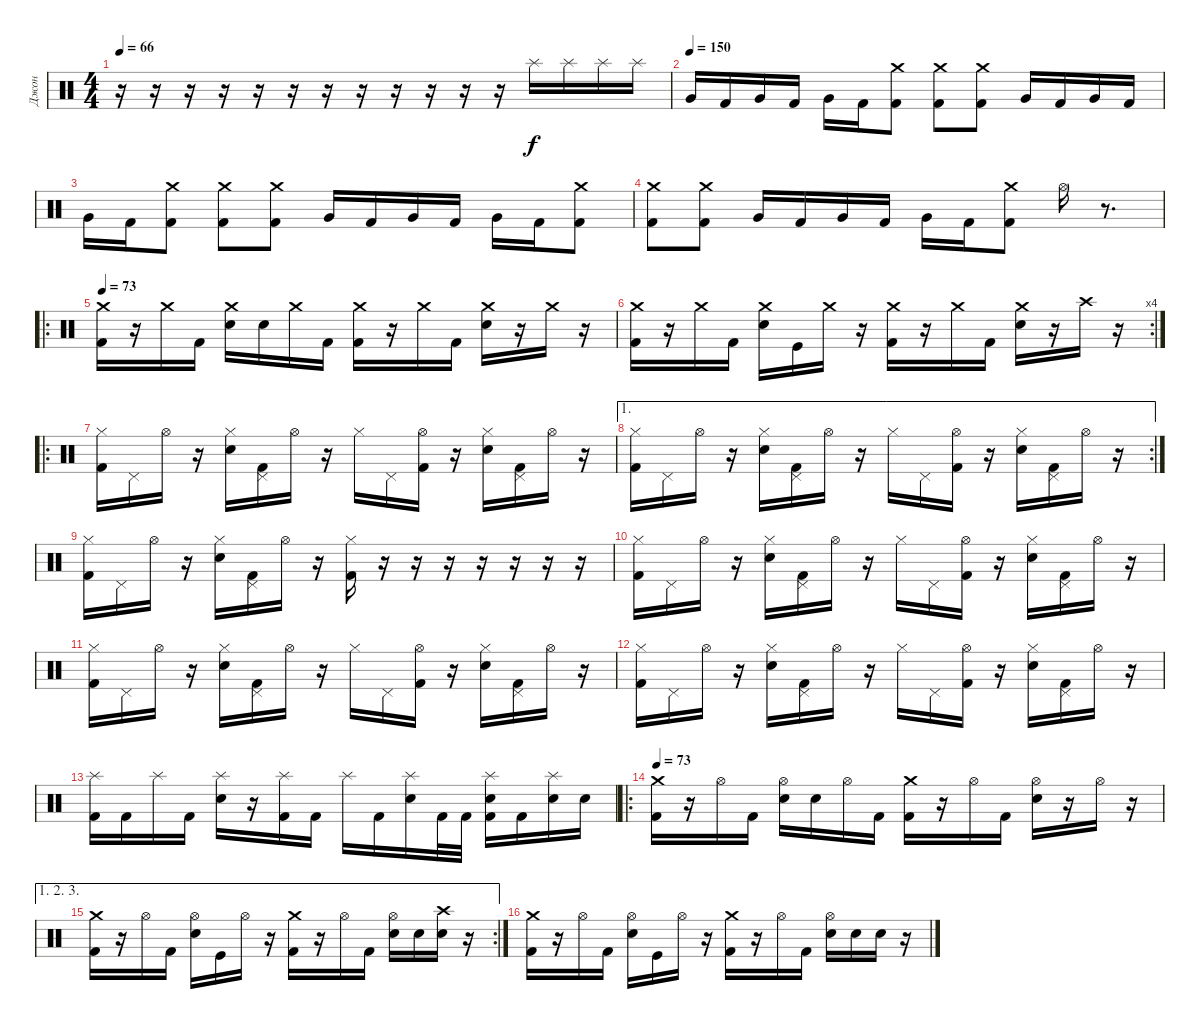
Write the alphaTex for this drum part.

\track ("Джон" "Джон") {instrument percussion}
\staff {score}
\articulation defaults
\ts (4 4)
\tempo 66
\clef neutral
\ks c
r.16{dy f} r.16 r.16 r.16 r.16 r.16 r.16 r.16 r.16 r.16 r.16 r.16 "Splash (hit)".16 "Splash (hit)".16 "Splash (hit)".16 "Splash (hit)".16 |
\tempo (150)
"Very Low Tom (hit)".16 "Kick (hit) 2".16 "Very Low Tom (hit)".16 "Kick (hit) 2".16 "Very Low Tom (hit)".16 "Kick (hit) 2".16 ("Crash medium (hit)" "Kick (hit) 2").8 ("Crash medium (hit)" "Kick (hit) 2").8 ("Crash medium (hit)" "Kick (hit) 2").8 "Very Low Tom (hit)".16 "Kick (hit) 2".16 "Very Low Tom (hit)".16 "Kick (hit) 2".16 |
"Very Low Tom (hit)".16 "Kick (hit) 2".16 ("Crash medium (hit)" "Kick (hit) 2").8 ("Crash medium (hit)" "Kick (hit) 2").8 ("Crash medium (hit)" "Kick (hit) 2").8 "Very Low Tom (hit)".16 "Kick (hit) 2".16 "Very Low Tom (hit)".16 "Kick (hit) 2".16 "Very Low Tom (hit)".16 "Kick (hit) 2".16 ("Crash medium (hit)" "Kick (hit) 2").8 |
("Crash medium (hit)" "Kick (hit) 2").8 ("Crash medium (hit)" "Kick (hit) 2").8 "Very Low Tom (hit)".16 "Kick (hit) 2".16 "Very Low Tom (hit)".16 "Kick (hit) 2".16 "Very Low Tom (hit)".16 "Kick (hit) 2".16 ("Crash medium (hit)" "Kick (hit) 2").8 "Hi-Hat (open)".16 r.8{d} |
\ro
\tempo 73
("Crash medium (hit)" "Kick (hit) 2").16 r.16 "Crash medium (hit)".16 "Kick (hit) 2".16 ("Crash medium (hit)" "Electric Snare (hit)").16 "Electric Snare (hit)".16 "Crash medium (hit)".16 "Kick (hit) 2".16 ("Crash medium (hit)" "Kick (hit) 2").16 r.16 "Crash medium (hit)".16 "Kick (hit) 2".16 ("Crash medium (hit)" "Electric Snare (hit)").16 r.16 "Crash medium (hit)".16 r.16 |
\rc 4
("Crash medium (hit)" "Kick (hit) 2").16 r.16 "Crash medium (hit)".16 "Kick (hit) 2".16 ("Crash medium (hit)" "Electric Snare (hit)").16 "Kick (hit)".16 "Crash medium (hit)".16 r.16 ("Crash medium (hit)" "Kick (hit) 2").16 r.16 "Crash medium (hit)".16 "Kick (hit) 2".16 ("Crash medium (hit)" "Electric Snare (hit)").16 r.16 "Crash high (hit)".16 r.16 |
\ro
("Hi-Hat (closed)" "Kick (hit) 2").16 "Pedal Hi-Hat (hit)".16 "Hi-Hat (open)".16 r.16 ("Hi-Hat (closed)" "Electric Snare (hit)").16 ("Pedal Hi-Hat (hit)" "Kick (hit) 2").16 "Hi-Hat (open)".16 r.16 "Hi-Hat (closed)".16 "Pedal Hi-Hat (hit)".16 ("Hi-Hat (open)" "Kick (hit) 2").16 r.16 ("Hi-Hat (closed)" "Electric Snare (hit)").16 ("Pedal Hi-Hat (hit)" "Kick (hit) 2").16 "Hi-Hat (open)".16 r.16 |
\ae 1
\rc 2
("Hi-Hat (closed)" "Kick (hit) 2").16 "Pedal Hi-Hat (hit)".16 "Hi-Hat (open)".16 r.16 ("Hi-Hat (closed)" "Electric Snare (hit)").16 ("Pedal Hi-Hat (hit)" "Kick (hit) 2").16 "Hi-Hat (open)".16 r.16 "Hi-Hat (closed)".16 "Pedal Hi-Hat (hit)".16 ("Hi-Hat (open)" "Kick (hit) 2").16 r.16 ("Hi-Hat (closed)" "Electric Snare (hit)").16 ("Pedal Hi-Hat (hit)" "Kick (hit) 2").16 "Hi-Hat (open)".16 r.16 |
("Hi-Hat (closed)" "Kick (hit) 2").16 "Pedal Hi-Hat (hit)".16 "Hi-Hat (open)".16 r.16 ("Hi-Hat (closed)" "Electric Snare (hit)").16 ("Pedal Hi-Hat (hit)" "Kick (hit) 2").16 "Hi-Hat (open)".16 r.16 ("Hi-Hat (closed)" "Kick (hit) 2").16 r.16 r.16 r.16 r.16 r.16 r.16 r.16 |
("Hi-Hat (closed)" "Kick (hit) 2").16 "Pedal Hi-Hat (hit)".16 "Hi-Hat (open)".16 r.16 ("Hi-Hat (closed)" "Electric Snare (hit)").16 ("Pedal Hi-Hat (hit)" "Kick (hit) 2").16 "Hi-Hat (open)".16 r.16 "Hi-Hat (closed)".16 "Pedal Hi-Hat (hit)".16 ("Hi-Hat (open)" "Kick (hit) 2").16 r.16 ("Hi-Hat (closed)" "Electric Snare (hit)").16 ("Pedal Hi-Hat (hit)" "Kick (hit) 2").16 "Hi-Hat (open)".16 r.16 |
("Hi-Hat (closed)" "Kick (hit) 2").16 "Pedal Hi-Hat (hit)".16 "Hi-Hat (open)".16 r.16 ("Hi-Hat (closed)" "Electric Snare (hit)").16 ("Pedal Hi-Hat (hit)" "Kick (hit) 2").16 "Hi-Hat (open)".16 r.16 "Hi-Hat (closed)".16 "Pedal Hi-Hat (hit)".16 ("Hi-Hat (open)" "Kick (hit) 2").16 r.16 ("Hi-Hat (closed)" "Electric Snare (hit)").16 ("Pedal Hi-Hat (hit)" "Kick (hit) 2").16 "Hi-Hat (open)".16 r.16 |
("Hi-Hat (closed)" "Kick (hit) 2").16 "Pedal Hi-Hat (hit)".16 "Hi-Hat (open)".16 r.16 ("Hi-Hat (closed)" "Electric Snare (hit)").16 ("Pedal Hi-Hat (hit)" "Kick (hit) 2").16 "Hi-Hat (open)".16 r.16 "Hi-Hat (closed)".16 "Pedal Hi-Hat (hit)".16 ("Hi-Hat (open)" "Kick (hit) 2").16 r.16 ("Hi-Hat (closed)" "Electric Snare (hit)").16 ("Pedal Hi-Hat (hit)" "Kick (hit) 2").16 "Hi-Hat (open)".16 r.16 |
("Splash (hit)" "Kick (hit) 2").16 "Kick (hit) 2".16 "Splash (hit)".16 "Kick (hit) 2".16 ("Splash (hit)" "Electric Snare (hit)").16 r.16 ("Splash (hit)" "Kick (hit) 2").16 "Kick (hit) 2".16 "Splash (hit)".16 "Kick (hit) 2".16 ("Splash (hit)" "Electric Snare (hit)").16 "Kick (hit) 2".32 "Kick (hit) 2".32 ("Splash (hit)" "Electric Snare (hit)" "Kick (hit) 2").16 "Kick (hit) 2".16 ("Splash (hit)" "Electric Snare (hit)").16 "Electric Snare (hit)".16 |
\ro
\tempo 73
("Crash medium (hit)" "Kick (hit) 2").16 r.16 "Hi-Hat (open)".16 "Kick (hit) 2".16 ("Hi-Hat (open)" "Electric Snare (hit)").16 "Electric Snare (hit)".16 "Hi-Hat (open)".16 "Kick (hit) 2".16 ("Crash medium (hit)" "Kick (hit) 2").16 r.16 "Hi-Hat (open)".16 "Kick (hit) 2".16 ("Hi-Hat (open)" "Electric Snare (hit)").16 r.16 "Hi-Hat (open)".16 r.16 |
\ae (1 2 3)
\rc 2
("Crash medium (hit)" "Kick (hit) 2").16 r.16 "Hi-Hat (open)".16 "Kick (hit) 2".16 ("Hi-Hat (open)" "Electric Snare (hit)").16 "Kick (hit)".16 "Hi-Hat (open)".16 r.16 ("Crash medium (hit)" "Kick (hit) 2").16 r.16 "Hi-Hat (open)".16 "Kick (hit) 2".16 ("Hi-Hat (open)" "Electric Snare (hit)").16 "Electric Snare (hit)".16 ("Crash high (hit)" "Electric Snare (hit)").16 r.16 |
("Crash medium (hit)" "Kick (hit) 2").16 r.16 "Hi-Hat (open)".16 "Kick (hit) 2".16 ("Hi-Hat (open)" "Electric Snare (hit)").16 "Kick (hit)".16 "Hi-Hat (open)".16 r.16 ("Crash medium (hit)" "Kick (hit) 2").16 r.16 "Hi-Hat (open)".16 "Kick (hit) 2".16 ("Hi-Hat (open)" "Electric Snare (hit)").16 "Electric Snare (hit)".16 "Electric Snare (hit)".16 r.16
